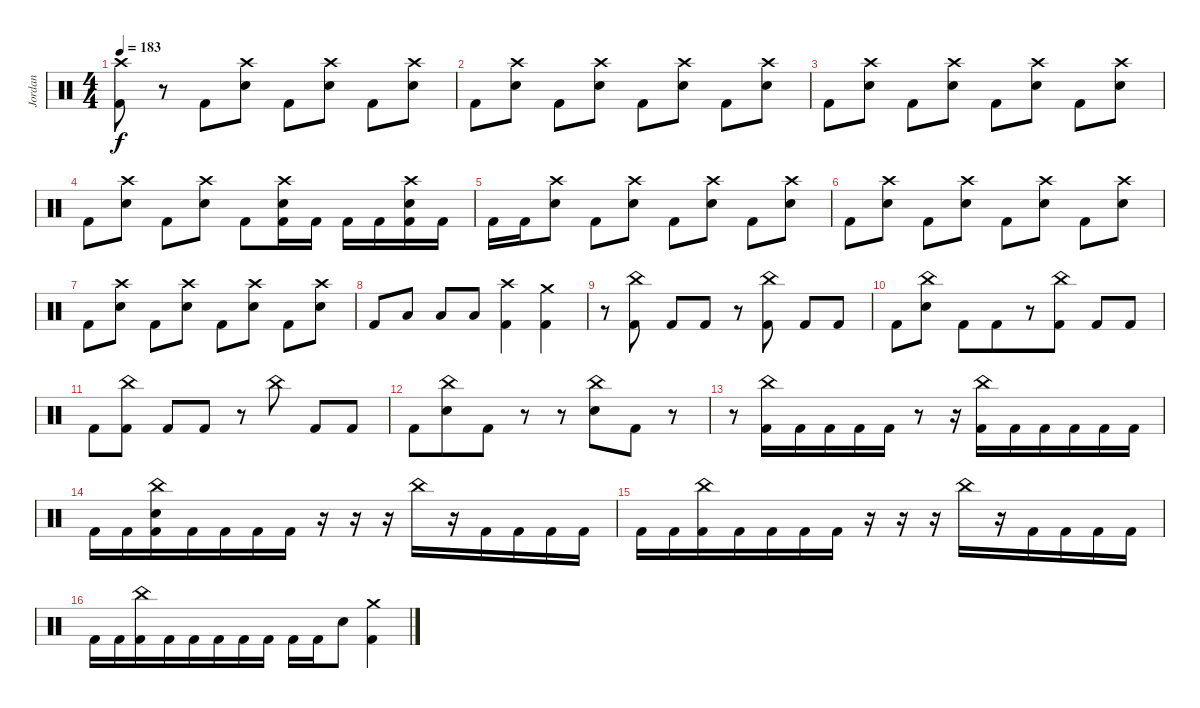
\track ("Jordan" "Jordan") {instrument percussion bank 82}
\staff {score}
\articulation defaults
\ts (4 4)
\tempo 183
\clef neutral
\ks c
("Crash high (hit)" "Kick (hit) 2").8{dy f} r.8 "Kick (hit) 2".8{beam merge} ("Crash high (hit)" "Snare (hit) 2").8 "Kick (hit) 2".8{beam merge} ("Crash high (hit)" "Snare (hit) 2").8 "Kick (hit) 2".8{beam merge} ("Crash high (hit)" "Snare (hit) 2").8 |
"Kick (hit) 2".8{beam merge} ("Crash high (hit)" "Snare (hit) 2").8 "Kick (hit) 2".8{beam merge} ("Crash high (hit)" "Snare (hit) 2").8 "Kick (hit) 2".8{beam merge} ("Crash high (hit)" "Snare (hit) 2").8 "Kick (hit) 2".8{beam merge} ("Crash high (hit)" "Snare (hit) 2").8 |
"Kick (hit) 2".8{beam merge} ("Crash high (hit)" "Snare (hit) 2").8 "Kick (hit) 2".8{beam merge} ("Crash high (hit)" "Snare (hit) 2").8 "Kick (hit) 2".8{beam merge} ("Crash high (hit)" "Snare (hit) 2").8 "Kick (hit) 2".8{beam merge} ("Crash high (hit)" "Snare (hit) 2").8 |
"Kick (hit) 2".8{beam merge} ("Crash high (hit)" "Snare (hit) 2").8 "Kick (hit) 2".8{beam merge} ("Crash high (hit)" "Snare (hit) 2").8 "Kick (hit) 2".8{beam merge} ("Crash high (hit)" "Snare (hit) 2" "Kick (hit) 2").16 "Kick (hit) 2".16 "Kick (hit) 2".16{beam merge} "Kick (hit) 2".16{beam merge} ("Crash high (hit)" "Snare (hit) 2" "Kick (hit) 2").16 "Kick (hit) 2".16 |
"Kick (hit) 2".16 "Kick (hit) 2".16{beam merge} ("Crash high (hit)" "Snare (hit) 2").8 "Kick (hit) 2".8{beam merge} ("Crash high (hit)" "Snare (hit) 2").8 "Kick (hit) 2".8{beam merge} ("Crash high (hit)" "Snare (hit) 2").8 "Kick (hit) 2".8{beam merge} ("Crash high (hit)" "Snare (hit) 2").8 |
"Kick (hit) 2".8{beam merge} ("Crash high (hit)" "Snare (hit) 2").8 "Kick (hit) 2".8{beam merge} ("Crash high (hit)" "Snare (hit) 2").8 "Kick (hit) 2".8{beam merge} ("Crash high (hit)" "Snare (hit) 2").8 "Kick (hit) 2".8{beam merge} ("Crash high (hit)" "Snare (hit) 2").8 |
"Kick (hit) 2".8{beam merge} ("Crash high (hit)" "Snare (hit) 2").8 "Kick (hit) 2".8{beam merge} ("Crash high (hit)" "Snare (hit) 2").8 "Kick (hit) 2".8{beam merge} ("Crash high (hit)" "Snare (hit) 2").8 "Kick (hit) 2".8{beam merge} ("Crash high (hit)" "Snare (hit) 2").8 |
"Kick (hit) 2".8{beam merge} "Low Tom (hit)".8 "Low Tom (hit)".8 "Low Tom (hit)".8 ("Crash high (hit)" "Kick (hit) 2").4 ("Crash medium (hit)" "Kick (hit) 2").4 |
r.8 ("China (hit)" "Kick (hit) 2").8 "Kick (hit) 2".8{beam merge} "Kick (hit) 2".8 r.8{beam merge} ("China (hit)" "Kick (hit) 2").8 "Kick (hit) 2".8{beam merge} "Kick (hit) 2".8 |
"Kick (hit) 2".8 ("China (hit)" "Snare (hit) 2").8 "Kick (hit) 2".8 "Kick (hit) 2".8{beam merge} r.8 ("China (hit)" "Kick (hit) 2").8 "Kick (hit) 2".8{beam merge} "Kick (hit) 2".8 |
"Kick (hit) 2".8{beam merge} ("China (hit)" "Kick (hit) 2").8 "Kick (hit) 2".8{beam merge} "Kick (hit) 2".8 r.8{beam merge} "China (hit)".8 "Kick (hit) 2".8{beam merge} "Kick (hit) 2".8 |
"Kick (hit) 2".8 ("China (hit)" "Snare (hit) 2").8{beam merge} "Kick (hit) 2".8 r.8 r.8 ("China (hit)" "Snare (hit) 2").8{beam merge} "Kick (hit) 2".8 r.8 |
r.8 ("China (hit)" "Kick (hit) 2").16 "Kick (hit) 2".16{beam merge} "Kick (hit) 2".16{beam merge} "Kick (hit) 2".16{beam merge} "Kick (hit) 2".16 r.8 r.16{beam merge} ("China (hit)" "Kick (hit) 2").16{beam merge} "Kick (hit) 2".16{beam merge} "Kick (hit) 2".16{beam merge} "Kick (hit) 2".16 "Kick (hit) 2".16 "Kick (hit) 2".16 |
"Kick (hit) 2".16{beam merge} "Kick (hit) 2".16 ("China (hit)" "Snare (hit) 2" "Kick (hit) 2").16 "Kick (hit) 2".16{beam merge} "Kick (hit) 2".16{beam merge} "Kick (hit) 2".16{beam merge} "Kick (hit) 2".16 r.16 r.16 r.16{beam merge} "China (hit)".16{beam merge} r.16{beam merge} "Kick (hit) 2".16{beam merge} "Kick (hit) 2".16{beam merge} "Kick (hit) 2".16 "Kick (hit) 2".16 |
"Kick (hit) 2".16{beam merge} "Kick (hit) 2".16 ("China (hit)" "Kick (hit) 2").16 "Kick (hit) 2".16{beam merge} "Kick (hit) 2".16{beam merge} "Kick (hit) 2".16{beam merge} "Kick (hit) 2".16 r.16 r.16 r.16{beam merge} "China (hit)".16{beam merge} r.16{beam merge} "Kick (hit) 2".16{beam merge} "Kick (hit) 2".16{beam merge} "Kick (hit) 2".16 "Kick (hit) 2".16 |
"Kick (hit) 2".16{beam merge} "Kick (hit) 2".16 ("China (hit)" "Kick (hit) 2").16 "Kick (hit) 2".16{beam merge} "Kick (hit) 2".16{beam merge} "Kick (hit) 2".16{beam merge} "Kick (hit) 2".16{beam merge} "Kick (hit) 2".16 "Kick (hit) 2".16 "Kick (hit) 2".16 "Snare (hit) 2".8{beam merge} ("Crash medium (hit)" "Kick (hit) 2").4
